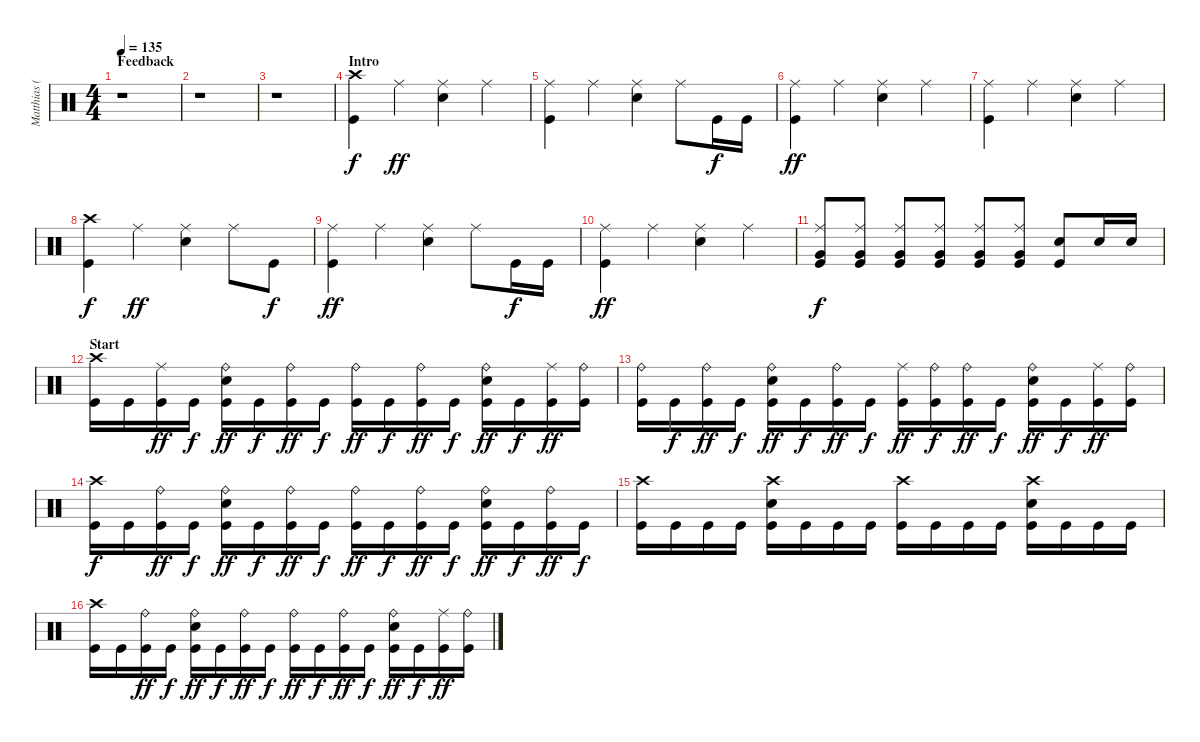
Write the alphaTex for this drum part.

\track ("Matthias (Drums)" "Matthias (") {instrument percussion}
\staff {score}
\articulation defaults
\ts (4 4)
\section ("" "Feedback")
\tempo 135
\clef neutral
\ks c
r.1{dy f} |
r.1 |
r.1 |
\section ("" "Intro")
("Crash high (hit)" "Kick (hit)").4 "Ride (middle)".4{dy ff} ("Ride (middle)" "Electric Snare (hit)").4 "Ride (middle)".4 |
("Ride (middle)" "Kick (hit)").4 "Ride (middle)".4 ("Ride (middle)" "Electric Snare (hit)").4 "Ride (middle)".8 "Kick (hit)".16{dy f} "Kick (hit)".16 |
("Ride (middle)" "Kick (hit)").4{dy ff} "Ride (middle)".4 ("Ride (middle)" "Electric Snare (hit)").4 "Ride (middle)".4 |
("Ride (middle)" "Kick (hit)").4 "Ride (middle)".4 ("Ride (middle)" "Electric Snare (hit)").4 "Ride (middle)".4 |
("Crash high (hit)" "Kick (hit)").4{dy f} "Ride (middle)".4{dy ff} ("Ride (middle)" "Electric Snare (hit)").4 "Ride (middle)".8 "Kick (hit)".8{dy f} |
("Ride (middle)" "Kick (hit)").4{dy ff} "Ride (middle)".4 ("Ride (middle)" "Electric Snare (hit)").4 "Ride (middle)".8 "Kick (hit)".16{dy f} "Kick (hit)".16 |
("Ride (middle)" "Kick (hit)").4{dy ff} "Ride (middle)".4 ("Ride (middle)" "Electric Snare (hit)").4 "Ride (middle)".4 |
("Ride (middle)" "Very Low Tom (hit)" "Kick (hit)").8{dy f} ("Ride (middle)" "Very Low Tom (hit)" "Kick (hit)").8 ("Ride (middle)" "Very Low Tom (hit)" "Kick (hit)").8 ("Ride (middle)" "Very Low Tom (hit)" "Kick (hit)").8 ("Ride (middle)" "Very Low Tom (hit)" "Kick (hit)").8 ("Ride (middle)" "Very Low Tom (hit)" "Kick (hit)").8 ("Electric Snare (hit)" "Kick (hit)").8 "Electric Snare (hit)".16 "Electric Snare (hit)".16 |
\section ("" "Start")
("Crash high (hit)" "Kick (hit)").16 "Kick (hit)".16 ("Ride (middle)" "Kick (hit)").16{dy ff} "Kick (hit)".16{dy f} ("Ride (bell)" "Electric Snare (hit)" "Kick (hit)").16{dy ff} "Kick (hit)".16{dy f} ("Ride (bell)" "Kick (hit)").16{dy ff} "Kick (hit)".16{dy f} ("Ride (bell)" "Kick (hit)").16{dy ff} "Kick (hit)".16{dy f} ("Ride (bell)" "Kick (hit)").16{dy ff} "Kick (hit)".16{dy f} ("Ride (bell)" "Electric Snare (hit)" "Kick (hit)").16{dy ff} "Kick (hit)".16{dy f} ("Ride (middle)" "Kick (hit)").16{dy ff} ("Ride (bell)" "Kick (hit)").16 |
("Ride (bell)" "Kick (hit)").16 "Kick (hit)".16{dy f} ("Ride (bell)" "Kick (hit)").16{dy ff} "Kick (hit)".16{dy f} ("Ride (bell)" "Electric Snare (hit)" "Kick (hit)").16{dy ff} "Kick (hit)".16{dy f} ("Ride (bell)" "Kick (hit)").16{dy ff} "Kick (hit)".16{dy f} ("Ride (middle)" "Kick (hit)").16{dy ff} ("Ride (bell)" "Kick (hit)").16{dy f} ("Ride (bell)" "Kick (hit)").16{dy ff} "Kick (hit)".16{dy f} ("Ride (bell)" "Electric Snare (hit)" "Kick (hit)").16{dy ff} "Kick (hit)".16{dy f} ("Ride (middle)" "Kick (hit)").16{dy ff} ("Ride (bell)" "Kick (hit)").16 |
("Crash high (hit)" "Kick (hit)").16{dy f} "Kick (hit)".16 ("Ride (bell)" "Kick (hit)").16{dy ff} "Kick (hit)".16{dy f} ("Ride (bell)" "Electric Snare (hit)" "Kick (hit)").16{dy ff} "Kick (hit)".16{dy f} ("Ride (bell)" "Kick (hit)").16{dy ff} "Kick (hit)".16{dy f} ("Ride (bell)" "Kick (hit)").16{dy ff} "Kick (hit)".16{dy f} ("Ride (bell)" "Kick (hit)").16{dy ff} "Kick (hit)".16{dy f} ("Ride (bell)" "Electric Snare (hit)" "Kick (hit)").16{dy ff} "Kick (hit)".16{dy f} ("Ride (bell)" "Kick (hit)").16{dy ff} "Kick (hit)".16{dy f} |
("Crash high (hit)" "Kick (hit)").16 "Kick (hit)".16 "Kick (hit)".16 "Kick (hit)".16 ("Crash high (hit)" "Electric Snare (hit)" "Kick (hit)").16 "Kick (hit)".16 "Kick (hit)".16 "Kick (hit)".16 ("Crash high (hit)" "Kick (hit)").16 "Kick (hit)".16 "Kick (hit)".16 "Kick (hit)".16 ("Crash high (hit)" "Electric Snare (hit)" "Kick (hit)").16 "Kick (hit)".16 "Kick (hit)".16 "Kick (hit)".16 |
("Crash high (hit)" "Kick (hit)").16 "Kick (hit)".16 ("Ride (bell)" "Kick (hit)").16{dy ff} "Kick (hit)".16{dy f} ("Ride (bell)" "Electric Snare (hit)" "Kick (hit)").16{dy ff} "Kick (hit)".16{dy f} ("Ride (bell)" "Kick (hit)").16{dy ff} "Kick (hit)".16{dy f} ("Ride (bell)" "Kick (hit)").16{dy ff} "Kick (hit)".16{dy f} ("Ride (bell)" "Kick (hit)").16{dy ff} "Kick (hit)".16{dy f} ("Ride (bell)" "Electric Snare (hit)" "Kick (hit)").16{dy ff} "Kick (hit)".16{dy f} ("Ride (middle)" "Kick (hit)").16{dy ff} ("Ride (bell)" "Kick (hit)").16
